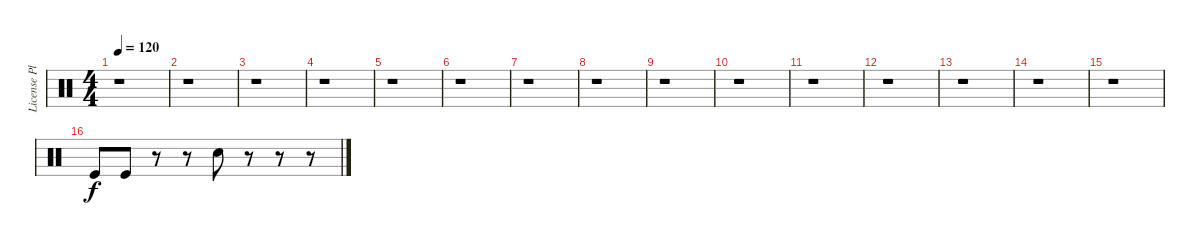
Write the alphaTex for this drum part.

\track ("License Plate Machine" "License Pl") {instrument percussion}
\staff {score}
\articulation defaults
\ts (4 4)
\tempo 120
\clef neutral
\ks c
r.1{dy f} |
r.1 |
r.1 |
r.1 |
r.1 |
r.1 |
r.1 |
r.1 |
r.1 |
r.1 |
r.1 |
r.1 |
r.1 |
r.1 |
r.1 |
"Kick (hit)".8 "Kick (hit)".8 r.8 r.8 "Electric Snare (hit)".8 r.8 r.8 r.8
